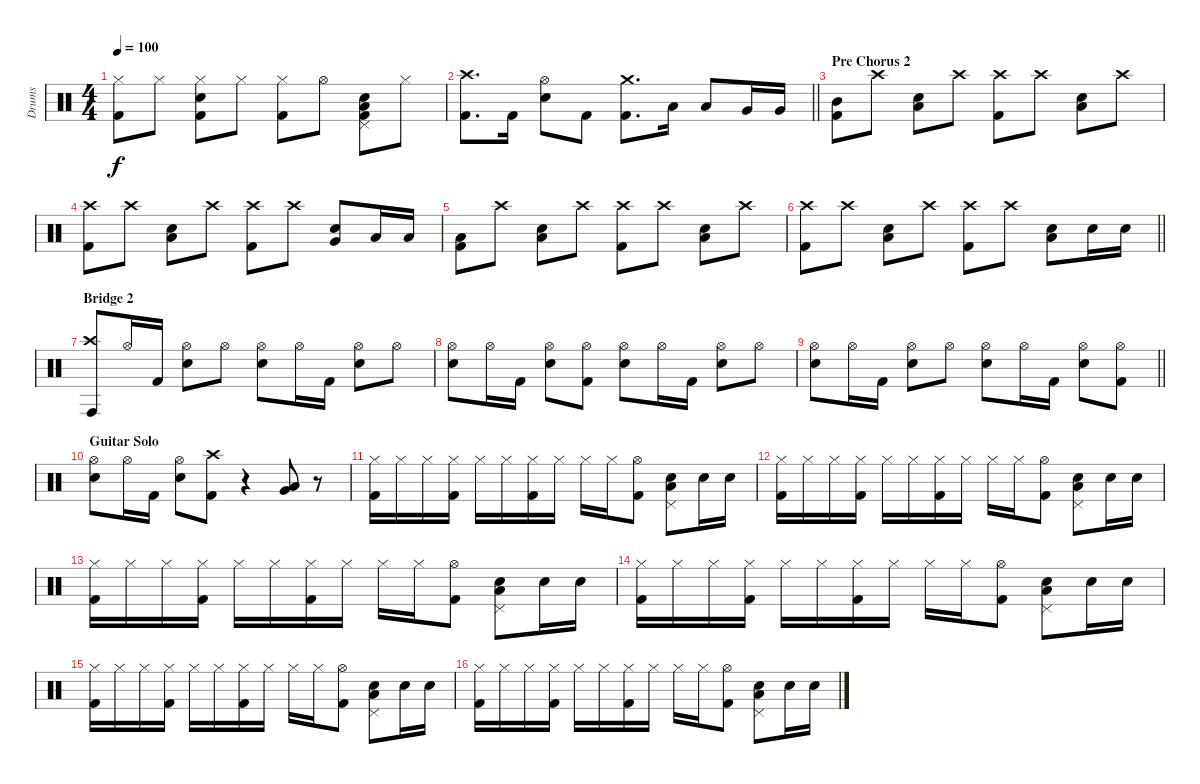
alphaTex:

\track ("Drums" "Drums") {instrument percussion}
\staff {score}
\articulation defaults
\ts (4 4)
\tempo 100
\clef neutral
\ks c
("Kick (hit) 2" "Hi-Hat (closed)").8{dy f} "Hi-Hat (closed)".8 ("Kick (hit) 2" "Hi-Hat (closed)" "Snare (hit) 2").8 "Hi-Hat (closed)".8 ("Kick (hit) 2" "Hi-Hat (closed)").8 "Hi-Hat (open)".8 ("Kick (hit) 2" "Pedal Hi-Hat (hit)" "Low Floor Tom (hit)" "Snare (hit) 2").8 "Hi-Hat (closed)".8 |
\barLineRight lightlight
("Crash high (hit)" "Kick (hit) 2").8{d} "Kick (hit) 2".16 ("Snare (hit) 2" "Hi-Hat (open)").8 "Kick (hit) 2".8 ("Crash medium (hit)" "Kick (hit) 2").8{d} "Low Tom (hit)".16 "Low Tom (hit)".8 "Very Low Tom (hit)".16 "Very Low Tom (hit)".16 |
\section ("" "Pre Chorus 2")
("Kick (hit) 2" "Mid Tom (hit)").8 "Crash high (hit)".8 ("Low Floor Tom (hit)" "Snare (hit) 2").8 "Crash high (hit)".8 ("Kick (hit) 2" "Crash high (hit)").8 "Crash high (hit)".8 ("Low Floor Tom (hit)" "Snare (hit) 2").8 "Crash high (hit)".8 |
("Kick (hit) 2" "Crash high (hit)").8 "Crash high (hit)".8 ("Snare (hit) 2" "Low Floor Tom (hit)").8 "Crash high (hit)".8 ("Crash high (hit)" "Kick (hit) 2").8 "Crash high (hit)".8 ("Snare (hit) 2" "Very Low Tom (hit)").8 "Low Tom (hit)".16 "Low Tom (hit)".16 |
("Low Tom (hit)" "Kick (hit) 2").8 "Crash high (hit)".8 ("Low Floor Tom (hit)" "Snare (hit) 2").8 "Crash high (hit)".8 ("Kick (hit) 2" "Crash high (hit)").8 "Crash high (hit)".8 ("Low Floor Tom (hit)" "Snare (hit) 2").8 "Crash high (hit)".8 |
\barLineRight lightlight
("Crash high (hit)" "Kick (hit) 2").8 "Crash high (hit)".8 ("Low Floor Tom (hit)" "Snare (hit) 2").8 "Crash high (hit)".8 ("Kick (hit) 2" "Crash high (hit)").8 "Crash high (hit)".8 ("Snare (hit) 2" "Low Floor Tom (hit)").8 "Snare (hit) 2".16 "Snare (hit) 2".16 |
\section ("" "Bridge 2")
("Crash high (hit)" "Conga high (hit)").8 "Hi-Hat (open)".16 "Kick (hit) 2".16 ("Snare (hit) 2" "Hi-Hat (open)").8 "Hi-Hat (open)".8 ("Hi-Hat (open)" "Snare (hit) 2").8 "Hi-Hat (open)".16 "Kick (hit) 2".16 ("Hi-Hat (open)" "Snare (hit) 2").8 "Hi-Hat (open)".8 |
("Snare (hit) 2" "Hi-Hat (open)").8 "Hi-Hat (open)".16 "Kick (hit) 2".16 ("Snare (hit) 2" "Hi-Hat (open)").8 ("Kick (hit) 2" "Hi-Hat (open)").8 ("Hi-Hat (open)" "Snare (hit) 2").8 "Hi-Hat (open)".16 "Kick (hit) 2".16 ("Snare (hit) 2" "Hi-Hat (open)").8 "Hi-Hat (open)".8 |
\barLineRight lightlight
("Hi-Hat (open)" "Snare (hit) 2").8 "Hi-Hat (open)".16 "Kick (hit) 2".16 ("Hi-Hat (open)" "Snare (hit) 2").8 "Hi-Hat (open)".8 ("Hi-Hat (open)" "Snare (hit) 2").8 "Hi-Hat (open)".16 "Kick (hit) 2".16 ("Hi-Hat (open)" "Snare (hit) 2").8 ("Kick (hit) 2" "Hi-Hat (open)").8 |
\section ("" "Guitar Solo")
("Hi-Hat (open)" "Snare (hit) 2").8 "Hi-Hat (open)".16 "Kick (hit) 2".16 ("Hi-Hat (open)" "Snare (hit) 2").8 ("Crash high (hit)" "Kick (hit) 2").8 r.4 ("Low Floor Tom (hit)" "Very Low Tom (hit)").8 r.8 |
("Kick (hit) 2" "Hi-Hat (closed)").16 "Hi-Hat (closed)".16 "Hi-Hat (closed)".16 ("Hi-Hat (closed)" "Kick (hit) 2").16 "Hi-Hat (closed)".16 "Hi-Hat (closed)".16 ("Hi-Hat (closed)" "Kick (hit) 2").16 "Hi-Hat (closed)".16 "Hi-Hat (closed)".16 "Hi-Hat (closed)".16 ("Kick (hit) 2" "Hi-Hat (open)").8 ("Snare (hit) 2" "Low Floor Tom (hit)" "Pedal Hi-Hat (hit)").8 "Snare (hit) 2".16 "Snare (hit) 2".16 |
("Kick (hit) 2" "Hi-Hat (closed)").16 "Hi-Hat (closed)".16 "Hi-Hat (closed)".16 ("Hi-Hat (closed)" "Kick (hit) 2").16 "Hi-Hat (closed)".16 "Hi-Hat (closed)".16 ("Hi-Hat (closed)" "Kick (hit) 2").16 "Hi-Hat (closed)".16 "Hi-Hat (closed)".16 "Hi-Hat (closed)".16 ("Kick (hit) 2" "Hi-Hat (open)").8 ("Snare (hit) 2" "Low Floor Tom (hit)" "Pedal Hi-Hat (hit)").8 "Snare (hit) 2".16 "Snare (hit) 2".16 |
("Kick (hit) 2" "Hi-Hat (closed)").16 "Hi-Hat (closed)".16 "Hi-Hat (closed)".16 ("Hi-Hat (closed)" "Kick (hit) 2").16 "Hi-Hat (closed)".16 "Hi-Hat (closed)".16 ("Hi-Hat (closed)" "Kick (hit) 2").16 "Hi-Hat (closed)".16 "Hi-Hat (closed)".16 "Hi-Hat (closed)".16 ("Kick (hit) 2" "Hi-Hat (open)").8 ("Snare (hit) 2" "Low Floor Tom (hit)" "Pedal Hi-Hat (hit)").8 "Snare (hit) 2".16 "Snare (hit) 2".16 |
("Kick (hit) 2" "Hi-Hat (closed)").16 "Hi-Hat (closed)".16 "Hi-Hat (closed)".16 ("Hi-Hat (closed)" "Kick (hit) 2").16 "Hi-Hat (closed)".16 "Hi-Hat (closed)".16 ("Hi-Hat (closed)" "Kick (hit) 2").16 "Hi-Hat (closed)".16 "Hi-Hat (closed)".16 "Hi-Hat (closed)".16 ("Kick (hit) 2" "Hi-Hat (open)").8 ("Snare (hit) 2" "Low Floor Tom (hit)" "Pedal Hi-Hat (hit)").8 "Snare (hit) 2".16 "Snare (hit) 2".16 |
("Kick (hit) 2" "Hi-Hat (closed)").16 "Hi-Hat (closed)".16 "Hi-Hat (closed)".16 ("Hi-Hat (closed)" "Kick (hit) 2").16 "Hi-Hat (closed)".16 "Hi-Hat (closed)".16 ("Hi-Hat (closed)" "Kick (hit) 2").16 "Hi-Hat (closed)".16 "Hi-Hat (closed)".16 "Hi-Hat (closed)".16 ("Kick (hit) 2" "Hi-Hat (open)").8 ("Snare (hit) 2" "Low Floor Tom (hit)" "Pedal Hi-Hat (hit)").8 "Snare (hit) 2".16 "Snare (hit) 2".16 |
("Kick (hit) 2" "Hi-Hat (closed)").16 "Hi-Hat (closed)".16 "Hi-Hat (closed)".16 ("Hi-Hat (closed)" "Kick (hit) 2").16 "Hi-Hat (closed)".16 "Hi-Hat (closed)".16 ("Hi-Hat (closed)" "Kick (hit) 2").16 "Hi-Hat (closed)".16 "Hi-Hat (closed)".16 "Hi-Hat (closed)".16 ("Kick (hit) 2" "Hi-Hat (open)").8 ("Snare (hit) 2" "Low Floor Tom (hit)" "Pedal Hi-Hat (hit)").8 "Snare (hit) 2".16 "Snare (hit) 2".16
